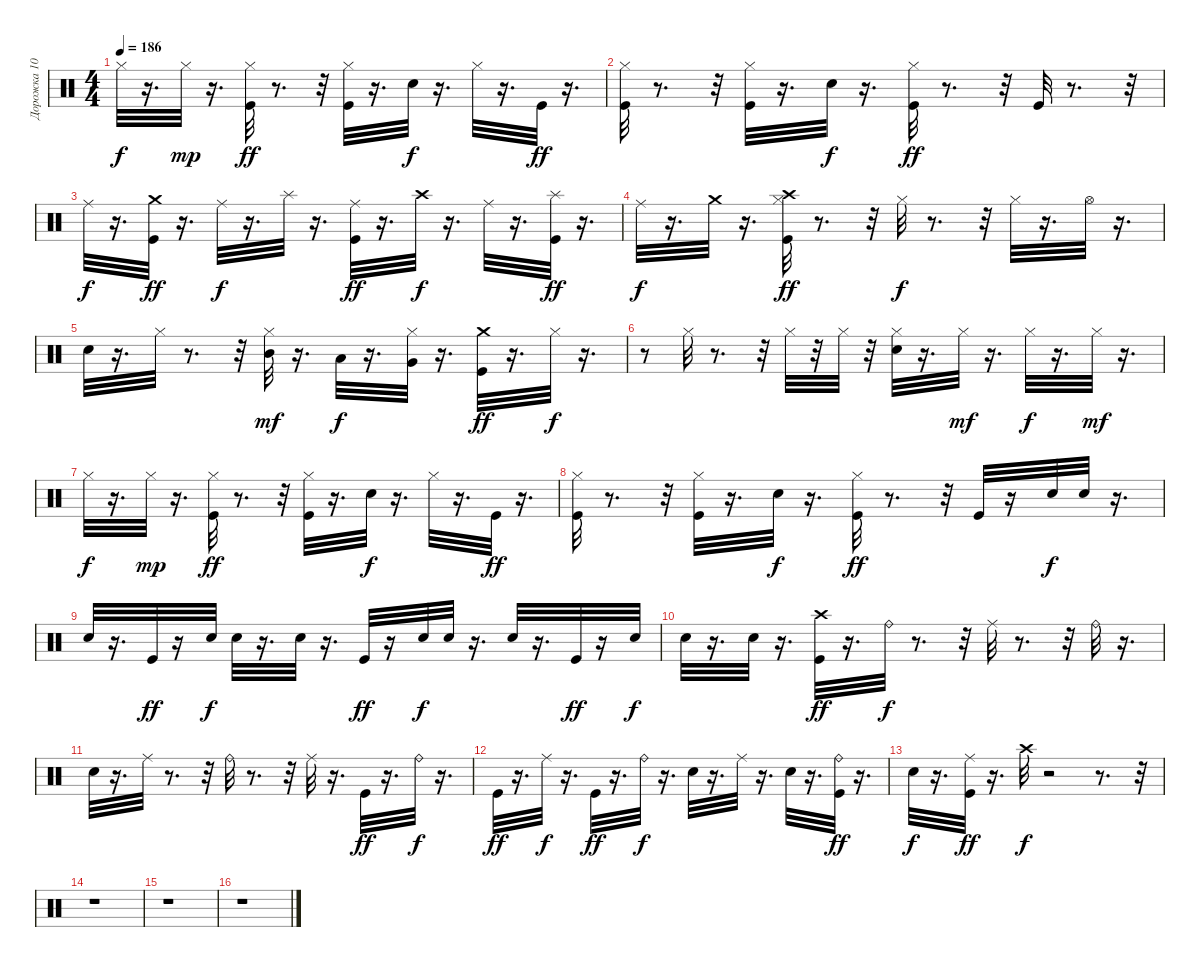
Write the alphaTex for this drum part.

\track ("Дорожка 10" "Дорожка 10") {instrument percussion}
\staff {score}
\articulation defaults
\ts (4 4)
\tempo 186
\clef neutral
\ks c "Hi-Hat (closed)".32{dy f}
r.16{d} "Hi-Hat (closed)".32{dy mp} r.16{d} ("Kick (hit)" "Hi-Hat (closed)").32{dy ff} r.8{d} r.32 ("Kick (hit)" "Hi-Hat (closed)").32 r.16{d} "Electric Snare (hit)".32{dy f} r.16{d} "Hi-Hat (closed)".32 r.16{d} "Kick (hit)".32{dy ff} r.16{d} |
("Kick (hit)" "Hi-Hat (closed)").32 r.8{d} r.32 ("Kick (hit)" "Hi-Hat (closed)").32 r.16{d} "Electric Snare (hit)".32{dy f} r.16{d} ("Kick (hit)" "Hi-Hat (closed)").32{dy ff} r.8{d} r.32 "Kick (hit)".32 r.8{d} r.32 |
"Ride (middle)".32{dy f} r.16{d} ("Kick (hit)" "Crash medium (hit)").32{dy ff} r.16{d} "Ride (middle)".32{dy f} r.16{d} "Splash (hit)".32 r.16{d} ("Kick (hit)" "Ride (middle)").32{dy ff} r.16{d} "Crash high (hit)".32{dy f} r.16{d} "Ride (middle)".32 r.16{d} ("Kick (hit)" "Splash (hit)").32{dy ff} r.16{d} |
"Ride (middle)".32{dy f} r.16{d} "Crash medium (hit)".32 r.16{d} ("Kick (hit)" "Crash high (hit)" "Hi-Hat (closed)").32{dy ff} r.8{d} r.32 "Hi-Hat (closed)".32{dy f} r.8{d} r.32 "Hi-Hat (closed)".32 r.16{d} "Hi-Hat (open)".32 r.16{d} |
"Electric Snare (hit)".32 r.16{d} "Hi-Hat (closed)".32 r.8{d} r.32 ("Hi-Hat (closed)" "Mid Tom (hit)").32{dy mf} r.16{d} "Low Tom (hit)".32{dy f} r.16{d} ("Hi-Hat (closed)" "Very Low Tom (hit)").32 r.16{d} ("Kick (hit)" "Crash medium (hit)").32{dy ff} r.16{d} "Hi-Hat (closed)".32{dy f} r.16{d} |
r.8 "Hi-Hat (closed)".32 r.8{d} r.32 "Hi-Hat (closed)".32 r.32 "Hi-Hat (closed)".32 r.32 ("Hi-Hat (closed)" "Electric Snare (hit)").32 r.16{d} "Hi-Hat (closed)".32{dy mf} r.16{d} "Hi-Hat (closed)".32{dy f} r.16{d} "Hi-Hat (closed)".32{dy mf} r.16{d} |
"Hi-Hat (closed)".32{dy f} r.16{d} "Hi-Hat (closed)".32{dy mp} r.16{d} ("Kick (hit)" "Hi-Hat (closed)").32{dy ff} r.8{d} r.32 ("Kick (hit)" "Hi-Hat (closed)").32 r.16{d} "Electric Snare (hit)".32{dy f} r.16{d} "Hi-Hat (closed)".32 r.16{d} "Kick (hit)".32{dy ff} r.16{d} |
("Kick (hit)" "Hi-Hat (closed)").32 r.8{d} r.32 ("Kick (hit)" "Hi-Hat (closed)").32 r.16{d} "Electric Snare (hit)".32{dy f} r.16{d} ("Kick (hit)" "Hi-Hat (closed)").32{dy ff} r.8{d} r.32 "Kick (hit)".32 r.16 "Electric Snare (hit)".32{dy f} "Electric Snare (hit)".32 r.16{d} |
"Electric Snare (hit)".32 r.16{d} "Kick (hit)".32{dy ff} r.16 "Electric Snare (hit)".32{dy f} "Electric Snare (hit)".32 r.16{d} "Electric Snare (hit)".32 r.16{d} "Kick (hit)".32{dy ff} r.16 "Electric Snare (hit)".32{dy f} "Electric Snare (hit)".32 r.16{d} "Electric Snare (hit)".32 r.16{d} "Kick (hit)".32{dy ff} r.16 "Electric Snare (hit)".32{dy f} |
"Electric Snare (hit)".32 r.16{d} "Electric Snare (hit)".32 r.16{d} ("Kick (hit)" "Crash high (hit)").32{dy ff} r.16{d} "Ride (bell)".32{dy f} r.8{d} r.32 "Ride (middle)".32 r.8{d} r.32 "Ride (bell)".32 r.16{d} |
"Electric Snare (hit)".32 r.16{d} "Ride (middle)".32 r.8{d} r.32 "Ride (bell)".32 r.8{d} r.32 "Ride (middle)".32 r.16{d} "Kick (hit)".32{dy ff} r.16{d} "Ride (bell)".32{dy f} r.16{d} |
"Kick (hit)".32{dy ff} r.16{d} "Ride (middle)".32{dy f} r.16{d} "Kick (hit)".32{dy ff} r.16{d} "Ride (bell)".32{dy f} r.16{d} "Electric Snare (hit)".32 r.16{d} "Ride (middle)".32 r.16{d} "Electric Snare (hit)".32 r.16{d} ("Kick (hit)" "Ride (bell)").32{dy ff} r.16{d} |
"Electric Snare (hit)".32{dy f} r.16{d} ("Kick (hit)" "Ride (middle)").32{dy ff} r.16{d} "Crash high (hit)".32{dy f} r.2 r.8{d} r.32 |
r.1 |
r.1 |
r.1
